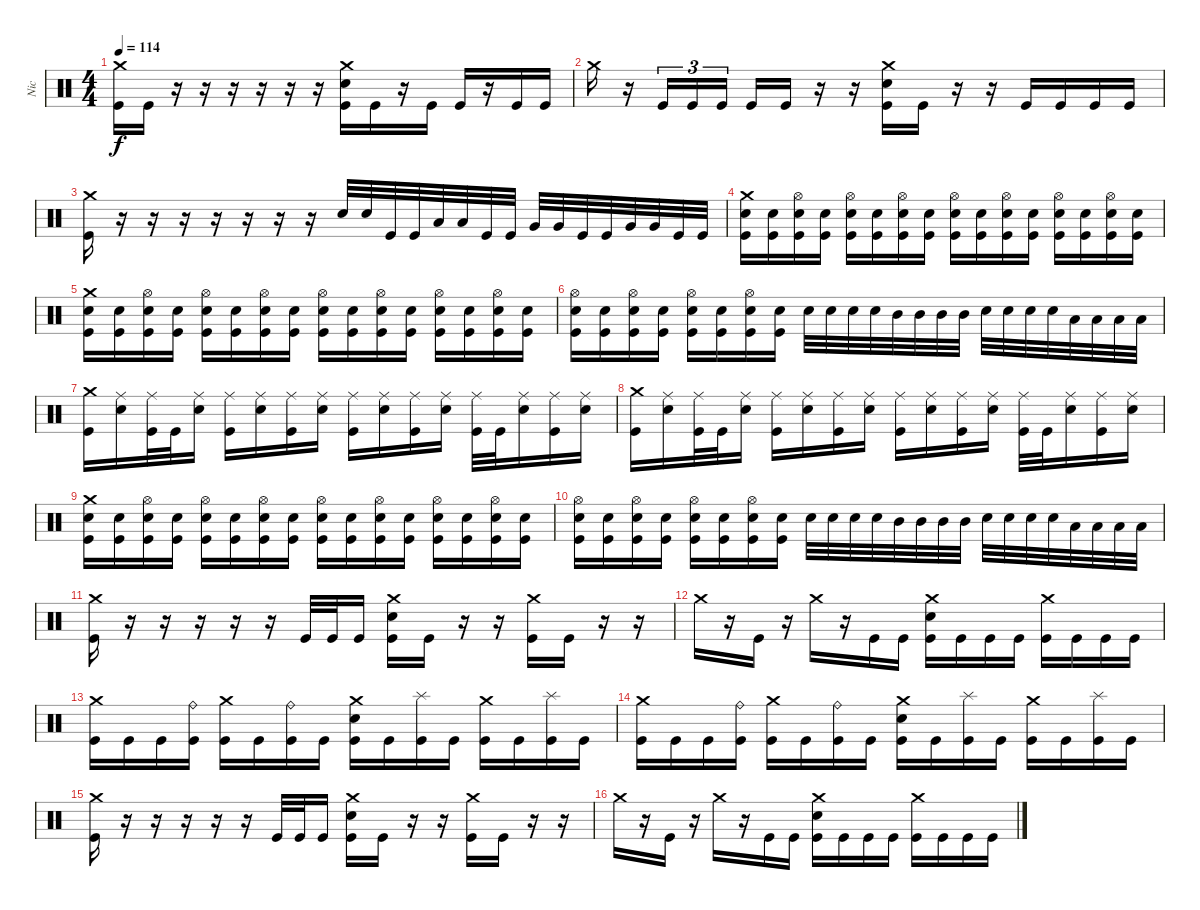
\track ("Nic" "Nic") {instrument percussion}
\staff {score}
\articulation defaults
\ts (4 4)
\tempo 114
\clef neutral
\ks c
("Crash medium (hit)" "Kick (hit)").16{dy f} "Kick (hit)".16 r.16 r.16 r.16 r.16 r.16 r.16 ("Crash medium (hit)" "Snare (hit) 2" "Kick (hit)").16 "Kick (hit)".16 r.16 "Kick (hit)".16 "Kick (hit)".16 r.16 "Kick (hit)".16 "Kick (hit)".16 |
"Crash medium (hit)".16 r.16 "Kick (hit)".16{tu (3 2)} "Kick (hit)".16{tu (3 2)} "Kick (hit)".16{tu (3 2)} "Kick (hit)".16 "Kick (hit)".16 r.16 r.16 ("Crash medium (hit)" "Snare (hit) 2" "Kick (hit)").16 "Kick (hit)".16 r.16 r.16 "Kick (hit)".16 "Kick (hit)".16 "Kick (hit)".16 "Kick (hit)".16 |
("Crash medium (hit)" "Kick (hit)").16 r.16 r.16 r.16 r.16 r.16 r.16 r.16 "Snare (hit) 2".32 "Snare (hit) 2".32 "Kick (hit)".32 "Kick (hit)".32 "Low Tom (hit)".32 "Low Tom (hit)".32 "Kick (hit)".32 "Kick (hit)".32 "Very Low Tom (hit)".32 "Very Low Tom (hit)".32 "Kick (hit)".32 "Kick (hit)".32 "Very Low Tom (hit)".32 "Very Low Tom (hit)".32 "Kick (hit)".32 "Kick (hit)".32 |
("Crash medium (hit)" "Snare (hit) 2" "Kick (hit)").16 ("Snare (hit) 2" "Kick (hit)").16 ("Hi-Hat (open)" "Snare (hit) 2" "Kick (hit)").16 ("Snare (hit) 2" "Kick (hit)").16 ("Hi-Hat (open)" "Snare (hit) 2" "Kick (hit)").16 ("Snare (hit) 2" "Kick (hit)").16 ("Hi-Hat (open)" "Snare (hit) 2" "Kick (hit)").16 ("Snare (hit) 2" "Kick (hit)").16 ("Hi-Hat (open)" "Snare (hit) 2" "Kick (hit)").16 ("Snare (hit) 2" "Kick (hit)").16 ("Hi-Hat (open)" "Snare (hit) 2" "Kick (hit)").16 ("Snare (hit) 2" "Kick (hit)").16 ("Hi-Hat (open)" "Snare (hit) 2" "Kick (hit)").16 ("Snare (hit) 2" "Kick (hit)").16 ("Hi-Hat (open)" "Snare (hit) 2" "Kick (hit)").16 ("Snare (hit) 2" "Kick (hit)").16 |
("Crash medium (hit)" "Snare (hit) 2" "Kick (hit)").16 ("Snare (hit) 2" "Kick (hit)").16 ("Hi-Hat (open)" "Snare (hit) 2" "Kick (hit)").16 ("Snare (hit) 2" "Kick (hit)").16 ("Hi-Hat (open)" "Snare (hit) 2" "Kick (hit)").16 ("Snare (hit) 2" "Kick (hit)").16 ("Hi-Hat (open)" "Snare (hit) 2" "Kick (hit)").16 ("Snare (hit) 2" "Kick (hit)").16 ("Hi-Hat (open)" "Snare (hit) 2" "Kick (hit)").16 ("Snare (hit) 2" "Kick (hit)").16 ("Hi-Hat (open)" "Snare (hit) 2" "Kick (hit)").16 ("Snare (hit) 2" "Kick (hit)").16 ("Hi-Hat (open)" "Snare (hit) 2" "Kick (hit)").16 ("Snare (hit) 2" "Kick (hit)").16 ("Hi-Hat (open)" "Snare (hit) 2" "Kick (hit)").16 ("Snare (hit) 2" "Kick (hit)").16 |
("Hi-Hat (open)" "Snare (hit) 2" "Kick (hit)").16 ("Snare (hit) 2" "Kick (hit)").16 ("Hi-Hat (open)" "Snare (hit) 2" "Kick (hit)").16 ("Snare (hit) 2" "Kick (hit)").16 ("Hi-Hat (open)" "Snare (hit) 2" "Kick (hit)").16 ("Snare (hit) 2" "Kick (hit)").16 ("Hi-Hat (open)" "Snare (hit) 2" "Kick (hit)").16 ("Snare (hit) 2" "Kick (hit)").16 "Snare (hit) 2".32 "Snare (hit) 2".32 "Snare (hit) 2".32 "Snare (hit) 2".32 "Mid Tom (hit)".32 "Mid Tom (hit)".32 "Mid Tom (hit)".32 "Mid Tom (hit)".32 "Snare (hit) 2".32 "Snare (hit) 2".32 "Snare (hit) 2".32 "Snare (hit) 2".32 "Low Tom (hit)".32 "Low Tom (hit)".32 "Low Tom (hit)".32 "Low Tom (hit)".32 |
("Crash medium (hit)" "Kick (hit)").16 ("Ride (middle)" "Snare (hit) 2").16 ("Ride (middle)" "Kick (hit)").32 "Kick (hit)".32 ("Ride (middle)" "Snare (hit) 2").16 ("Ride (middle)" "Kick (hit)").16 ("Ride (middle)" "Snare (hit) 2").16 ("Ride (middle)" "Kick (hit)").16 ("Ride (middle)" "Snare (hit) 2").16 ("Ride (middle)" "Kick (hit)").16 ("Ride (middle)" "Snare (hit) 2").16 ("Ride (middle)" "Kick (hit)").16 ("Ride (middle)" "Snare (hit) 2").16 ("Ride (middle)" "Kick (hit)").32 "Kick (hit)".32 ("Ride (middle)" "Snare (hit) 2").16 ("Ride (middle)" "Kick (hit)").16 ("Ride (middle)" "Snare (hit) 2").16 |
("Crash medium (hit)" "Kick (hit)").16 ("Ride (middle)" "Snare (hit) 2").16 ("Ride (middle)" "Kick (hit)").32 "Kick (hit)".32 ("Ride (middle)" "Snare (hit) 2").16 ("Ride (middle)" "Kick (hit)").16 ("Ride (middle)" "Snare (hit) 2").16 ("Ride (middle)" "Kick (hit)").16 ("Ride (middle)" "Snare (hit) 2").16 ("Ride (middle)" "Kick (hit)").16 ("Ride (middle)" "Snare (hit) 2").16 ("Ride (middle)" "Kick (hit)").16 ("Ride (middle)" "Snare (hit) 2").16 ("Ride (middle)" "Kick (hit)").32 "Kick (hit)".32 ("Ride (middle)" "Snare (hit) 2").16 ("Ride (middle)" "Kick (hit)").16 ("Ride (middle)" "Snare (hit) 2").16 |
("Crash medium (hit)" "Snare (hit) 2" "Kick (hit)").16 ("Snare (hit) 2" "Kick (hit)").16 ("Hi-Hat (open)" "Snare (hit) 2" "Kick (hit)").16 ("Snare (hit) 2" "Kick (hit)").16 ("Hi-Hat (open)" "Snare (hit) 2" "Kick (hit)").16 ("Snare (hit) 2" "Kick (hit)").16 ("Hi-Hat (open)" "Snare (hit) 2" "Kick (hit)").16 ("Snare (hit) 2" "Kick (hit)").16 ("Hi-Hat (open)" "Snare (hit) 2" "Kick (hit)").16 ("Snare (hit) 2" "Kick (hit)").16 ("Hi-Hat (open)" "Snare (hit) 2" "Kick (hit)").16 ("Snare (hit) 2" "Kick (hit)").16 ("Hi-Hat (open)" "Snare (hit) 2" "Kick (hit)").16 ("Snare (hit) 2" "Kick (hit)").16 ("Hi-Hat (open)" "Snare (hit) 2" "Kick (hit)").16 ("Snare (hit) 2" "Kick (hit)").16 |
("Hi-Hat (open)" "Snare (hit) 2" "Kick (hit)").16 ("Snare (hit) 2" "Kick (hit)").16 ("Hi-Hat (open)" "Snare (hit) 2" "Kick (hit)").16 ("Snare (hit) 2" "Kick (hit)").16 ("Hi-Hat (open)" "Snare (hit) 2" "Kick (hit)").16 ("Snare (hit) 2" "Kick (hit)").16 ("Hi-Hat (open)" "Snare (hit) 2" "Kick (hit)").16 ("Snare (hit) 2" "Kick (hit)").16 "Snare (hit) 2".32 "Snare (hit) 2".32 "Snare (hit) 2".32 "Snare (hit) 2".32 "Mid Tom (hit)".32 "Mid Tom (hit)".32 "Mid Tom (hit)".32 "Mid Tom (hit)".32 "Snare (hit) 2".32 "Snare (hit) 2".32 "Snare (hit) 2".32 "Snare (hit) 2".32 "Low Tom (hit)".32 "Low Tom (hit)".32 "Low Tom (hit)".32 "Low Tom (hit)".32 |
("Crash medium (hit)" "Kick (hit)").16 r.16 r.16 r.16 r.16 r.16 "Kick (hit)".32 "Kick (hit)".32 "Kick (hit)".16 ("Crash medium (hit)" "Snare (hit) 2" "Kick (hit)").16 "Kick (hit)".16 r.16 r.16 ("Crash medium (hit)" "Kick (hit)").16 "Kick (hit)".16 r.16 r.16 |
"Crash medium (hit)".16 r.16 "Kick (hit)".16 r.16 "Crash medium (hit)".16 r.16 "Kick (hit)".16 "Kick (hit)".16 ("Crash medium (hit)" "Snare (hit) 2" "Kick (hit)").16 "Kick (hit)".16 "Kick (hit)".16 "Kick (hit)".16 ("Crash medium (hit)" "Kick (hit)").16 "Kick (hit)".16 "Kick (hit)".16 "Kick (hit)".16 |
("Crash medium (hit)" "Kick (hit)").16 "Kick (hit)".16 "Kick (hit)".16 ("Ride (bell)" "Kick (hit)").16 ("Crash medium (hit)" "Kick (hit)").16 "Kick (hit)".16 ("Ride (bell)" "Kick (hit)").16 "Kick (hit)".16 ("Crash medium (hit)" "Snare (hit) 2" "Kick (hit)").16 "Kick (hit)".16 ("Splash (hit)" "Kick (hit)").16 "Kick (hit)".16 ("Crash medium (hit)" "Kick (hit)").16 "Kick (hit)".16 ("Splash (hit)" "Kick (hit)").16 "Kick (hit)".16 |
("Crash medium (hit)" "Kick (hit)").16 "Kick (hit)".16 "Kick (hit)".16 ("Ride (bell)" "Kick (hit)").16 ("Crash medium (hit)" "Kick (hit)").16 "Kick (hit)".16 ("Ride (bell)" "Kick (hit)").16 "Kick (hit)".16 ("Crash medium (hit)" "Snare (hit) 2" "Kick (hit)").16 "Kick (hit)".16 ("Splash (hit)" "Kick (hit)").16 "Kick (hit)".16 ("Crash medium (hit)" "Kick (hit)").16 "Kick (hit)".16 ("Splash (hit)" "Kick (hit)").16 "Kick (hit)".16 |
("Crash medium (hit)" "Kick (hit)").16 r.16 r.16 r.16 r.16 r.16 "Kick (hit)".32 "Kick (hit)".32 "Kick (hit)".16 ("Crash medium (hit)" "Snare (hit) 2" "Kick (hit)").16 "Kick (hit)".16 r.16 r.16 ("Crash medium (hit)" "Kick (hit)").16 "Kick (hit)".16 r.16 r.16 |
"Crash medium (hit)".16 r.16 "Kick (hit)".16 r.16 "Crash medium (hit)".16 r.16 "Kick (hit)".16 "Kick (hit)".16 ("Crash medium (hit)" "Snare (hit) 2" "Kick (hit)").16 "Kick (hit)".16 "Kick (hit)".16 "Kick (hit)".16 ("Crash medium (hit)" "Kick (hit)").16 "Kick (hit)".16 "Kick (hit)".16 "Kick (hit)".16
